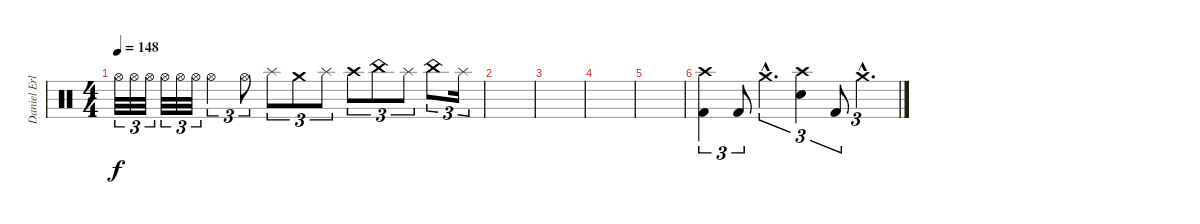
\track ("Daniel Erlandsson (Drums)" "Daniel Erl") {instrument percussion}
\staff {score}
\articulation defaults
\ts (4 4)
\tempo 148
\clef neutral
\ks c "Hi-Hat (open)".32{tu (3 2) dy f} "Hi-Hat (open)".32{tu (3 2)} "Hi-Hat (open)".32{tu (3 2)} "Hi-Hat (open)".32{tu (3 2)} "Hi-Hat (open)".32{tu (3 2)} "Hi-Hat (open)".32{tu (3 2)} "Hi-Hat (open)".4{tu (3 2)} "Hi-Hat (open)".8{tu (3 2)} "Splash (hit)".8{tu (3 2)} "Crash medium (hit)".8{tu (3 2)} "Splash (hit)".8{tu (3 2)} "Crash high (hit)".8{tu (3 2)} "China (hit)".8{tu (3 2)} "Splash (hit)".8{tu (3 2)} "China (hit)".8{tu (3 2)} "Splash (hit)".16{tu (3 2)}
|
|
|
|
|
("Crash high (hit)" "Kick (hit) 2").4{tu (3 2)} "Kick (hit) 2".8{tu (3 2)} "Crash medium (hit)"{hac}.4{d tu (3 2)} ("Crash high (hit)" "Snare (hit) 2").4{tu (3 2)} "Kick (hit) 2".8{tu (3 2)} "Crash medium (hit)"{hac}.4{d tu (3 2)}
